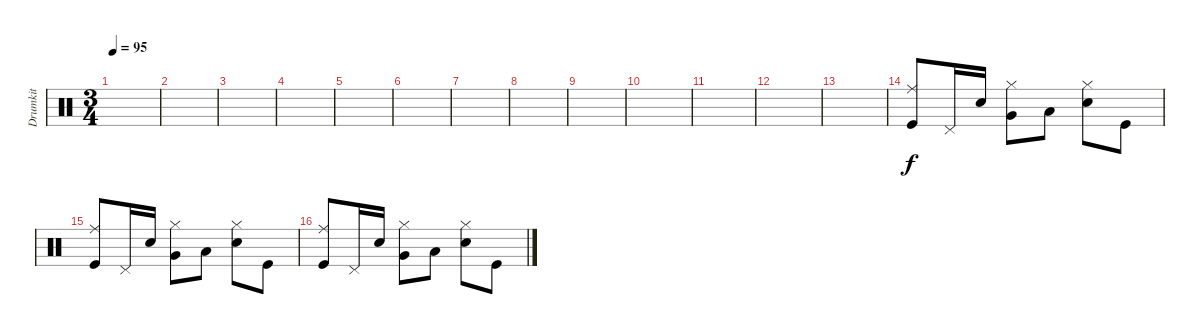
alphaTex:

\track ("Drumkit" "Drumkit") {instrument percussion}
\staff {score}
\articulation defaults
\ts (3 4)
\tempo 95
\clef neutral
\ks c
|
|
|
|
|
|
|
|
|
|
|
|
|
("Ride (middle)" "Kick (hit)").8 "Pedal Hi-Hat (hit)".16 "Snare (hit) 2".16 ("Hi-Hat (closed)" "Very Low Tom (hit)").8 "Low Tom (hit)".8 ("Snare (hit) 2" "Hi-Hat (closed)").8 "Kick (hit)".8 |
("Ride (middle)" "Kick (hit)").8 "Pedal Hi-Hat (hit)".16 "Snare (hit) 2".16 ("Hi-Hat (closed)" "Very Low Tom (hit)").8 "Low Tom (hit)".8 ("Snare (hit) 2" "Hi-Hat (closed)").8 "Kick (hit)".8 |
("Ride (middle)" "Kick (hit)").8 "Pedal Hi-Hat (hit)".16 "Snare (hit) 2".16 ("Hi-Hat (closed)" "Very Low Tom (hit)").8 "Low Tom (hit)".8 ("Snare (hit) 2" "Hi-Hat (closed)").8 "Kick (hit)".8
